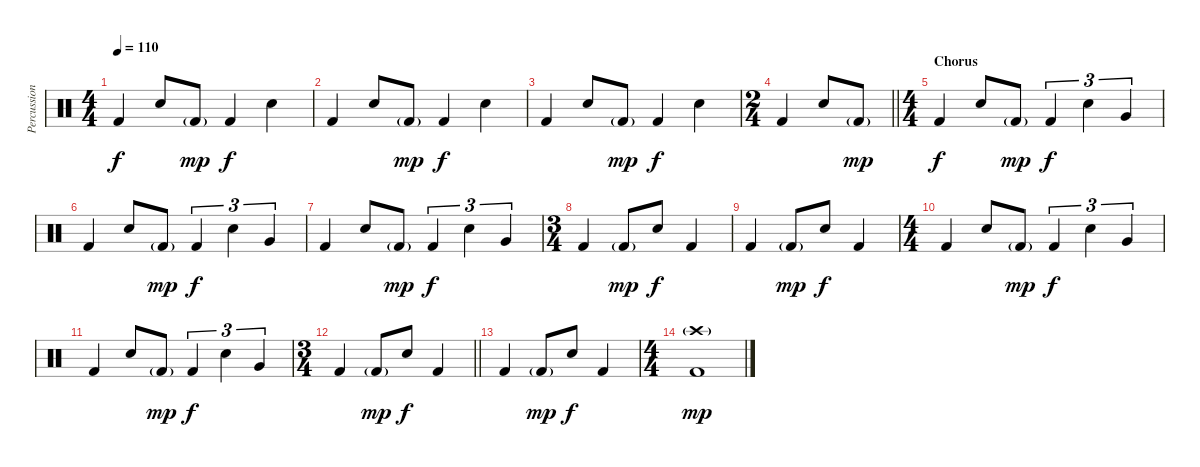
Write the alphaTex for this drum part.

\track ("Percussion" "Percussion") {instrument percussion}
\staff {score}
\articulation defaults
\ts (4 4)
\tempo 110
\clef neutral
\ks c "Kick (hit) 2".4{dy f} "Snare (hit) 2".8 "Kick (hit) 2"{g}.8{dy mp} "Kick (hit) 2".4{dy f} "Snare (hit) 2".4
|
"Kick (hit) 2".4 "Snare (hit) 2".8 "Kick (hit) 2"{g}.8{dy mp} "Kick (hit) 2".4{dy f} "Snare (hit) 2".4 |
"Kick (hit) 2".4 "Snare (hit) 2".8 "Kick (hit) 2"{g}.8{dy mp} "Kick (hit) 2".4{dy f} "Snare (hit) 2".4 |
\ts (2 4)
\barLineRight lightlight "Kick (hit) 2".4 "Snare (hit) 2".8 "Kick (hit) 2"{g}.8{dy mp}
|
\ts (4 4)
\section ("" "Chorus")
"Kick (hit) 2".4{dy f} "Snare (hit) 2".8 "Kick (hit) 2"{g}.8{dy mp} "Kick (hit) 2".4{tu (3 2) dy f} "Snare (hit) 2".4{tu (3 2)} "Very Low Tom (hit)".4{tu (3 2)} |
"Kick (hit) 2".4 "Snare (hit) 2".8 "Kick (hit) 2"{g}.8{dy mp} "Kick (hit) 2".4{tu (3 2) dy f} "Snare (hit) 2".4{tu (3 2)} "Very Low Tom (hit)".4{tu (3 2)} |
"Kick (hit) 2".4 "Snare (hit) 2".8 "Kick (hit) 2"{g}.8{dy mp} "Kick (hit) 2".4{tu (3 2) dy f} "Snare (hit) 2".4{tu (3 2)} "Very Low Tom (hit)".4{tu (3 2)} |
\ts (3 4)
"Kick (hit) 2".4 "Kick (hit) 2"{g}.8{dy mp} "Snare (hit) 2".8{dy f} "Kick (hit) 2".4 |
"Kick (hit) 2".4 "Kick (hit) 2"{g}.8{dy mp} "Snare (hit) 2".8{dy f} "Kick (hit) 2".4 |
\ts (4 4)
"Kick (hit) 2".4 "Snare (hit) 2".8 "Kick (hit) 2"{g}.8{dy mp} "Kick (hit) 2".4{tu (3 2) dy f} "Snare (hit) 2".4{tu (3 2)} "Very Low Tom (hit)".4{tu (3 2)} |
"Kick (hit) 2".4 "Snare (hit) 2".8 "Kick (hit) 2"{g}.8{dy mp} "Kick (hit) 2".4{tu (3 2) dy f} "Snare (hit) 2".4{tu (3 2)} "Very Low Tom (hit)".4{tu (3 2)} |
\ts (3 4)
\barLineRight lightlight "Kick (hit) 2".4 "Kick (hit) 2"{g}.8{dy mp} "Snare (hit) 2".8{dy f} "Kick (hit) 2".4
|
"Kick (hit) 2".4 "Kick (hit) 2"{g}.8{dy mp} "Snare (hit) 2".8{dy f} "Kick (hit) 2".4 |
\ts (4 4)
("Crash high (hit)"{g} "Kick (hit) 2").1{dy mp}
